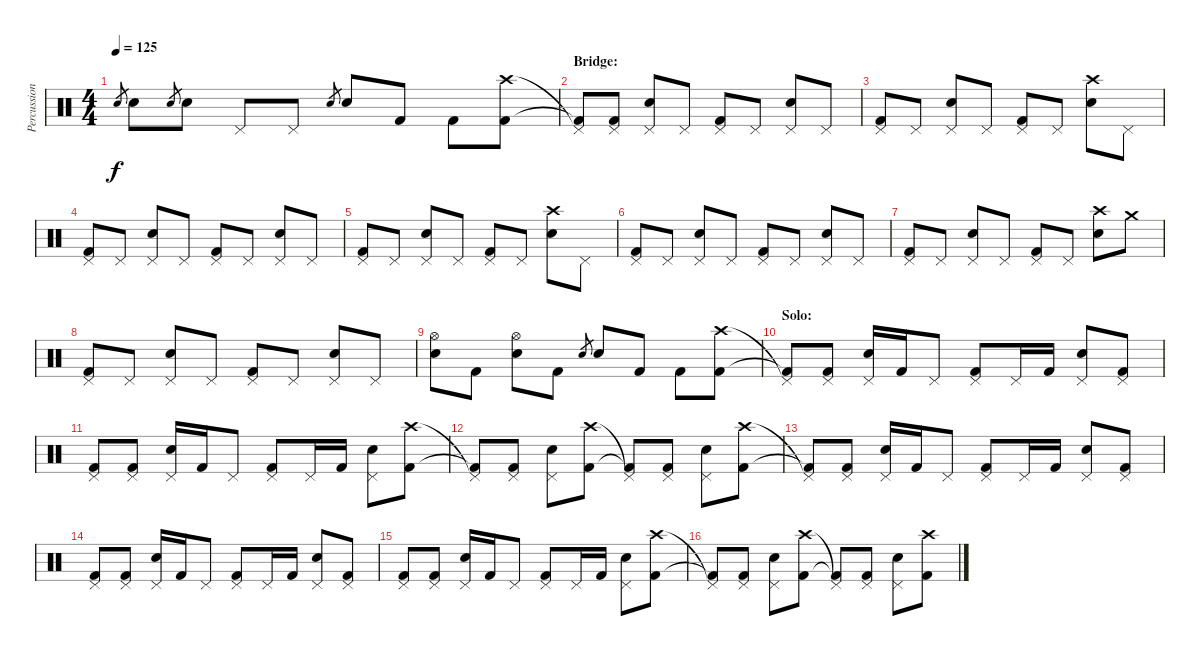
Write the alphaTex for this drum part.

\track ("Percussion" "Percussion") {instrument percussion}
\staff {score}
\articulation defaults
\ts (4 4)
\tempo 125
\clef neutral
\ks c "Electric Snare (hit)".8{gr dy f} "Electric Snare (hit)".8 "Electric Snare (hit)".8{gr} "Electric Snare (hit)".8 "Pedal Hi-Hat (hit)".8 "Pedal Hi-Hat (hit)".8 "Electric Snare (hit)".8{gr} "Electric Snare (hit)".8 "Kick (hit) 2".8 "Kick (hit) 2".8
("Crash high (hit)" "Kick (hit) 2").8 |
\section ("" "Bridge:")
("Pedal Hi-Hat (hit)"{t} "Kick (hit) 2"{t}).8 ("Pedal Hi-Hat (hit)" "Kick (hit) 2").8 ("Pedal Hi-Hat (hit)" "Electric Snare (hit)").8 "Pedal Hi-Hat (hit)".8 ("Pedal Hi-Hat (hit)" "Kick (hit) 2").8 "Pedal Hi-Hat (hit)".8 ("Pedal Hi-Hat (hit)" "Electric Snare (hit)").8 "Pedal Hi-Hat (hit)".8 |
("Pedal Hi-Hat (hit)" "Kick (hit) 2").8 "Pedal Hi-Hat (hit)".8 ("Pedal Hi-Hat (hit)" "Electric Snare (hit)").8 "Pedal Hi-Hat (hit)".8 ("Pedal Hi-Hat (hit)" "Kick (hit) 2").8 "Pedal Hi-Hat (hit)".8 ("Crash high (hit)" "Electric Snare (hit)").8 "Pedal Hi-Hat (hit)".8 |
("Pedal Hi-Hat (hit)" "Kick (hit) 2").8 "Pedal Hi-Hat (hit)".8 ("Pedal Hi-Hat (hit)" "Electric Snare (hit)").8 "Pedal Hi-Hat (hit)".8 ("Pedal Hi-Hat (hit)" "Kick (hit) 2").8 "Pedal Hi-Hat (hit)".8 ("Pedal Hi-Hat (hit)" "Electric Snare (hit)").8 "Pedal Hi-Hat (hit)".8 |
("Pedal Hi-Hat (hit)" "Kick (hit) 2").8 "Pedal Hi-Hat (hit)".8 ("Pedal Hi-Hat (hit)" "Electric Snare (hit)").8 "Pedal Hi-Hat (hit)".8 ("Pedal Hi-Hat (hit)" "Kick (hit) 2").8 "Pedal Hi-Hat (hit)".8 ("Crash high (hit)" "Electric Snare (hit)").8 "Pedal Hi-Hat (hit)".8 |
("Pedal Hi-Hat (hit)" "Kick (hit) 2").8 "Pedal Hi-Hat (hit)".8 ("Pedal Hi-Hat (hit)" "Electric Snare (hit)").8 "Pedal Hi-Hat (hit)".8 ("Pedal Hi-Hat (hit)" "Kick (hit) 2").8 "Pedal Hi-Hat (hit)".8 ("Pedal Hi-Hat (hit)" "Electric Snare (hit)").8 "Pedal Hi-Hat (hit)".8 |
("Pedal Hi-Hat (hit)" "Kick (hit) 2").8 "Pedal Hi-Hat (hit)".8 ("Pedal Hi-Hat (hit)" "Electric Snare (hit)").8 "Pedal Hi-Hat (hit)".8 ("Pedal Hi-Hat (hit)" "Kick (hit) 2").8 "Pedal Hi-Hat (hit)".8 ("Crash high (hit)" "Electric Snare (hit)").8 "Crash medium (hit)".8 |
("Pedal Hi-Hat (hit)" "Kick (hit) 2").8 "Pedal Hi-Hat (hit)".8 ("Pedal Hi-Hat (hit)" "Electric Snare (hit)").8 "Pedal Hi-Hat (hit)".8 ("Pedal Hi-Hat (hit)" "Kick (hit) 2").8 "Pedal Hi-Hat (hit)".8 ("Pedal Hi-Hat (hit)" "Electric Snare (hit)").8 "Pedal Hi-Hat (hit)".8 |
("Hi-Hat (open)" "Electric Snare (hit)").8 "Kick (hit) 2".8 ("Hi-Hat (open)" "Electric Snare (hit)").8 "Kick (hit) 2".8 "Electric Snare (hit)".8{gr} "Electric Snare (hit)".8 "Kick (hit) 2".8 "Kick (hit) 2".8 ("Crash high (hit)" "Kick (hit) 2").8 |
\section ("" "Solo:")
("Pedal Hi-Hat (hit)"{t} "Kick (hit) 2"{t}).8 ("Pedal Hi-Hat (hit)" "Kick (hit) 2").8 ("Pedal Hi-Hat (hit)" "Electric Snare (hit)").16 "Kick (hit) 2".16 "Pedal Hi-Hat (hit)".8 ("Pedal Hi-Hat (hit)" "Kick (hit) 2").8 "Pedal Hi-Hat (hit)".16 "Kick (hit) 2".16 ("Pedal Hi-Hat (hit)" "Electric Snare (hit)").8 ("Pedal Hi-Hat (hit)" "Kick (hit) 2").8 |
("Pedal Hi-Hat (hit)" "Kick (hit) 2").8 ("Pedal Hi-Hat (hit)" "Kick (hit) 2").8 ("Pedal Hi-Hat (hit)" "Electric Snare (hit)").16 "Kick (hit) 2".16 "Pedal Hi-Hat (hit)".8 ("Pedal Hi-Hat (hit)" "Kick (hit) 2").8 "Pedal Hi-Hat (hit)".16 "Kick (hit) 2".16 ("Pedal Hi-Hat (hit)" "Electric Snare (hit)").8 ("Crash high (hit)" "Kick (hit) 2").8 |
("Pedal Hi-Hat (hit)"{t} "Kick (hit) 2"{t}).8 ("Pedal Hi-Hat (hit)" "Kick (hit) 2").8 ("Pedal Hi-Hat (hit)" "Electric Snare (hit)").8 ("Crash high (hit)" "Kick (hit) 2").8 ("Pedal Hi-Hat (hit)"{t} "Kick (hit) 2"{t}).8 ("Pedal Hi-Hat (hit)" "Kick (hit) 2").8 ("Pedal Hi-Hat (hit)" "Electric Snare (hit)").8 ("Crash high (hit)" "Kick (hit) 2").8 |
("Pedal Hi-Hat (hit)"{t} "Kick (hit) 2"{t}).8 ("Pedal Hi-Hat (hit)" "Kick (hit) 2").8 ("Pedal Hi-Hat (hit)" "Electric Snare (hit)").16 "Kick (hit) 2".16 "Pedal Hi-Hat (hit)".8 ("Pedal Hi-Hat (hit)" "Kick (hit) 2").8 "Pedal Hi-Hat (hit)".16 "Kick (hit) 2".16 ("Pedal Hi-Hat (hit)" "Electric Snare (hit)").8 ("Pedal Hi-Hat (hit)" "Kick (hit) 2").8 |
("Pedal Hi-Hat (hit)" "Kick (hit) 2").8 ("Pedal Hi-Hat (hit)" "Kick (hit) 2").8 ("Pedal Hi-Hat (hit)" "Electric Snare (hit)").16 "Kick (hit) 2".16 "Pedal Hi-Hat (hit)".8 ("Pedal Hi-Hat (hit)" "Kick (hit) 2").8 "Pedal Hi-Hat (hit)".16 "Kick (hit) 2".16 ("Pedal Hi-Hat (hit)" "Electric Snare (hit)").8 ("Pedal Hi-Hat (hit)" "Kick (hit) 2").8 |
("Pedal Hi-Hat (hit)" "Kick (hit) 2").8 ("Pedal Hi-Hat (hit)" "Kick (hit) 2").8 ("Pedal Hi-Hat (hit)" "Electric Snare (hit)").16 "Kick (hit) 2".16 "Pedal Hi-Hat (hit)".8 ("Pedal Hi-Hat (hit)" "Kick (hit) 2").8 "Pedal Hi-Hat (hit)".16 "Kick (hit) 2".16 ("Pedal Hi-Hat (hit)" "Electric Snare (hit)").8 ("Crash high (hit)" "Kick (hit) 2").8 |
("Pedal Hi-Hat (hit)"{t} "Kick (hit) 2"{t}).8 ("Pedal Hi-Hat (hit)" "Kick (hit) 2").8 ("Pedal Hi-Hat (hit)" "Electric Snare (hit)").8 ("Crash high (hit)" "Kick (hit) 2").8 ("Pedal Hi-Hat (hit)"{t} "Kick (hit) 2"{t}).8 ("Pedal Hi-Hat (hit)" "Kick (hit) 2").8 ("Pedal Hi-Hat (hit)" "Electric Snare (hit)").8 ("Crash high (hit)" "Kick (hit) 2").8
